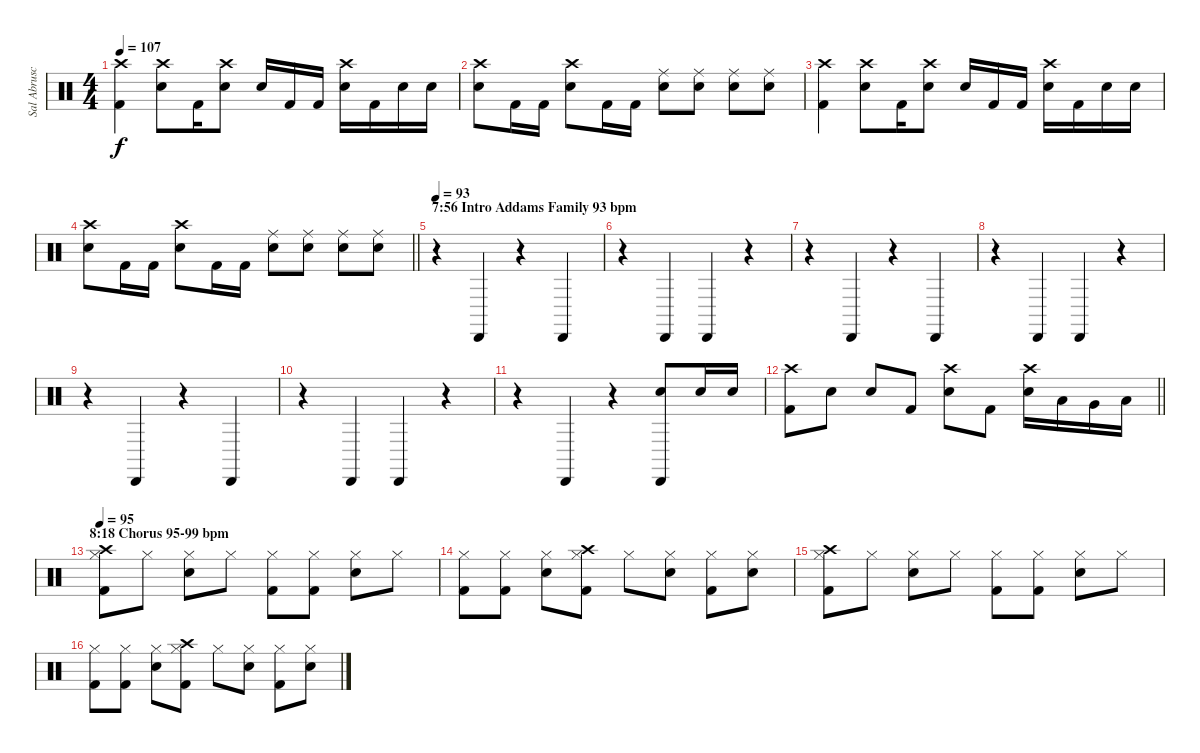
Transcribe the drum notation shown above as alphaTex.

\track ("Sal Abruscato (Drums)" "Sal Abrusc") {instrument percussion}
\staff {score}
\articulation defaults
\ts (4 4)
\tempo 107
\clef neutral
\ks c
("Crash high (hit)" "Kick (hit) 2").4{dy f} ("Crash high (hit)" "Electric Snare (hit)").8 "Kick (hit) 2".16 ("Crash high (hit)" "Electric Snare (hit)").8 "Electric Snare (hit)".16 "Kick (hit) 2".16 "Kick (hit) 2".16 ("Crash high (hit)" "Electric Snare (hit)").16 "Kick (hit) 2".16 "Electric Snare (hit)".16 "Electric Snare (hit)".16 |
("Crash high (hit)" "Electric Snare (hit)").8 "Kick (hit) 2".16 "Kick (hit) 2".16 ("Crash high (hit)" "Electric Snare (hit)").8 "Kick (hit) 2".16 "Kick (hit) 2".16 ("Ride (middle)" "Electric Snare (hit)").8 ("Ride (middle)" "Electric Snare (hit)").8 ("Ride (middle)" "Electric Snare (hit)").8 ("Ride (middle)" "Electric Snare (hit)").8 |
("Crash high (hit)" "Kick (hit) 2").4 ("Crash high (hit)" "Electric Snare (hit)").8 "Kick (hit) 2".16 ("Crash high (hit)" "Electric Snare (hit)").8 "Electric Snare (hit)".16 "Kick (hit) 2".16 "Kick (hit) 2".16 ("Crash high (hit)" "Electric Snare (hit)").16 "Kick (hit) 2".16 "Electric Snare (hit)".16 "Electric Snare (hit)".16 |
\barLineRight lightlight
("Crash high (hit)" "Electric Snare (hit)").8 "Kick (hit) 2".16 "Kick (hit) 2".16 ("Crash high (hit)" "Electric Snare (hit)").8 "Kick (hit) 2".16 "Kick (hit) 2".16 ("Ride (middle)" "Electric Snare (hit)").8 ("Ride (middle)" "Electric Snare (hit)").8 ("Ride (middle)" "Electric Snare (hit)").8 ("Ride (middle)" "Electric Snare (hit)").8 |
\section ("" "7:56 Intro Addams Family 93 bpm")
\tempo 93
r.4 "Cabasa (hit)".4 r.4 "Cabasa (hit)".4 |
r.4 "Cabasa (hit)".4 "Cabasa (hit)".4 r.4 |
r.4 "Cabasa (hit)".4 r.4 "Cabasa (hit)".4 |
r.4 "Cabasa (hit)".4 "Cabasa (hit)".4 r.4 |
r.4 "Cabasa (hit)".4 r.4 "Cabasa (hit)".4 |
r.4 "Cabasa (hit)".4 "Cabasa (hit)".4 r.4 |
r.4 "Cabasa (hit)".4 r.4 ("Cabasa (hit)" "Electric Snare (hit)").8 "Electric Snare (hit)".16 "Electric Snare (hit)".16 |
\barLineRight lightlight
("Crash high (hit)" "Kick (hit) 2").8 "Electric Snare (hit)".8 "Electric Snare (hit)".8 "Kick (hit) 2".8 ("Crash high (hit)" "Electric Snare (hit)").8 "Kick (hit) 2".8 ("Crash high (hit)" "Electric Snare (hit)").16 "Low Tom (hit)".16 "Very Low Tom (hit)".16 "Low Floor Tom (hit)".16 |
\section ("" "8:18 Chorus 95-99 bpm")
\tempo 95
("Crash high (hit)" "Hi-Hat (closed)" "Kick (hit) 2").8 "Hi-Hat (closed)".8 ("Hi-Hat (closed)" "Electric Snare (hit)").8 "Hi-Hat (closed)".8 ("Hi-Hat (closed)" "Kick (hit) 2").8 ("Hi-Hat (closed)" "Kick (hit) 2").8 ("Hi-Hat (closed)" "Electric Snare (hit)").8 "Hi-Hat (closed)".8 |
("Hi-Hat (closed)" "Kick (hit) 2").8 ("Hi-Hat (closed)" "Kick (hit) 2").8 ("Hi-Hat (closed)" "Electric Snare (hit)").8 ("Crash high (hit)" "Hi-Hat (closed)" "Kick (hit) 2").8 "Hi-Hat (closed)".8 ("Hi-Hat (closed)" "Electric Snare (hit)").8 ("Hi-Hat (closed)" "Kick (hit) 2").8 ("Hi-Hat (closed)" "Electric Snare (hit)").8 |
("Crash high (hit)" "Hi-Hat (closed)" "Kick (hit) 2").8 "Hi-Hat (closed)".8 ("Hi-Hat (closed)" "Electric Snare (hit)").8 "Hi-Hat (closed)".8 ("Hi-Hat (closed)" "Kick (hit) 2").8 ("Hi-Hat (closed)" "Kick (hit) 2").8 ("Hi-Hat (closed)" "Electric Snare (hit)").8 "Hi-Hat (closed)".8 |
("Hi-Hat (closed)" "Kick (hit) 2").8 ("Hi-Hat (closed)" "Kick (hit) 2").8 ("Hi-Hat (closed)" "Electric Snare (hit)").8 ("Crash high (hit)" "Hi-Hat (closed)" "Kick (hit) 2").8 "Hi-Hat (closed)".8 ("Hi-Hat (closed)" "Electric Snare (hit)").8 ("Hi-Hat (closed)" "Kick (hit) 2").8 ("Hi-Hat (closed)" "Electric Snare (hit)").8
